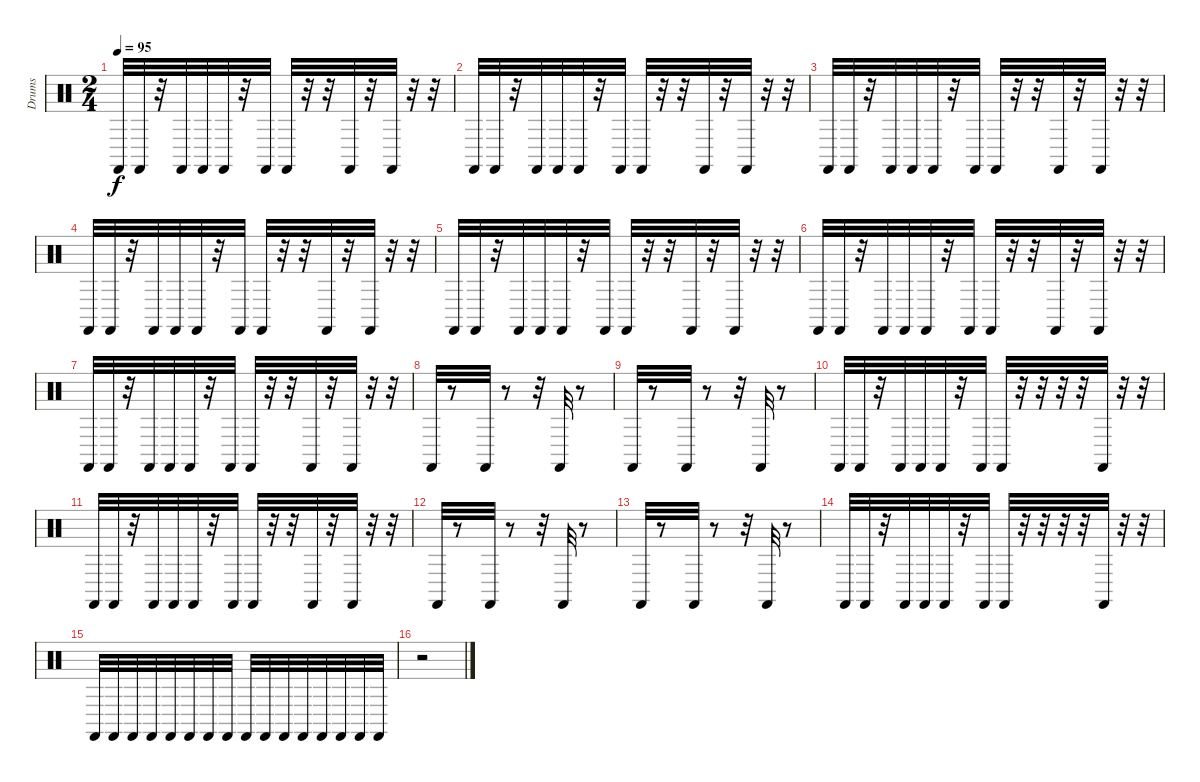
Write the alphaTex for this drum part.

\track ("Drums" "Drums") {instrument percussion}
\staff {score}
\articulation defaults
\ts (2 4)
\tempo 95
\clef neutral
\ks c "Castanets (hit)".32{dy f} "Castanets (hit)".32
r.32 "Castanets (hit)".32 "Castanets (hit)".32 "Castanets (hit)".32 r.32 "Castanets (hit)".32 "Castanets (hit)".32 r.32 r.32 "Castanets (hit)".32 r.32 "Castanets (hit)".32 r.32 r.32 |
"Castanets (hit)".32 "Castanets (hit)".32 r.32 "Castanets (hit)".32 "Castanets (hit)".32 "Castanets (hit)".32 r.32 "Castanets (hit)".32 "Castanets (hit)".32 r.32 r.32 "Castanets (hit)".32 r.32 "Castanets (hit)".32 r.32 r.32 |
"Castanets (hit)".32 "Castanets (hit)".32 r.32 "Castanets (hit)".32 "Castanets (hit)".32 "Castanets (hit)".32 r.32 "Castanets (hit)".32 "Castanets (hit)".32 r.32 r.32 "Castanets (hit)".32 r.32 "Castanets (hit)".32 r.32 r.32 |
"Castanets (hit)".32 "Castanets (hit)".32 r.32 "Castanets (hit)".32 "Castanets (hit)".32 "Castanets (hit)".32 r.32 "Castanets (hit)".32 "Castanets (hit)".32 r.32 r.32 "Castanets (hit)".32 r.32 "Castanets (hit)".32 r.32 r.32 |
"Castanets (hit)".32 "Castanets (hit)".32 r.32 "Castanets (hit)".32 "Castanets (hit)".32 "Castanets (hit)".32 r.32 "Castanets (hit)".32 "Castanets (hit)".32 r.32 r.32 "Castanets (hit)".32 r.32 "Castanets (hit)".32 r.32 r.32 |
"Castanets (hit)".32 "Castanets (hit)".32 r.32 "Castanets (hit)".32 "Castanets (hit)".32 "Castanets (hit)".32 r.32 "Castanets (hit)".32 "Castanets (hit)".32 r.32 r.32 "Castanets (hit)".32 r.32 "Castanets (hit)".32 r.32 r.32 |
"Castanets (hit)".32 "Castanets (hit)".32 r.32 "Castanets (hit)".32 "Castanets (hit)".32 "Castanets (hit)".32 r.32 "Castanets (hit)".32 "Castanets (hit)".32 r.32 r.32 "Castanets (hit)".32 r.32 "Castanets (hit)".32 r.32 r.32 |
"Castanets (hit)".32 r.8 "Castanets (hit)".32 r.8 r.32 "Castanets (hit)".32 r.8 |
"Castanets (hit)".32 r.8 "Castanets (hit)".32 r.8 r.32 "Castanets (hit)".32 r.8 |
"Castanets (hit)".32 "Castanets (hit)".32 r.32 "Castanets (hit)".32 "Castanets (hit)".32 "Castanets (hit)".32 r.32 "Castanets (hit)".32 "Castanets (hit)".32 r.32 r.32 r.32 r.32 "Castanets (hit)".32 r.32 r.32 |
"Castanets (hit)".32 "Castanets (hit)".32 r.32 "Castanets (hit)".32 "Castanets (hit)".32 "Castanets (hit)".32 r.32 "Castanets (hit)".32 "Castanets (hit)".32 r.32 r.32 "Castanets (hit)".32 r.32 "Castanets (hit)".32 r.32 r.32 |
"Castanets (hit)".32 r.8 "Castanets (hit)".32 r.8 r.32 "Castanets (hit)".32 r.8 |
"Castanets (hit)".32 r.8 "Castanets (hit)".32 r.8 r.32 "Castanets (hit)".32 r.8 |
"Castanets (hit)".32 "Castanets (hit)".32 r.32 "Castanets (hit)".32 "Castanets (hit)".32 "Castanets (hit)".32 r.32 "Castanets (hit)".32 "Castanets (hit)".32 r.32 r.32 r.32 r.32 "Castanets (hit)".32 r.32 r.32 |
"Castanets (hit)".32 "Castanets (hit)".32 "Castanets (hit)".32 "Castanets (hit)".32 "Castanets (hit)".32 "Castanets (hit)".32 "Castanets (hit)".32 "Castanets (hit)".32 "Castanets (hit)".32 "Castanets (hit)".32 "Castanets (hit)".32 "Castanets (hit)".32 "Castanets (hit)".32 "Castanets (hit)".32 "Castanets (hit)".32 "Castanets (hit)".32 |
r.2
